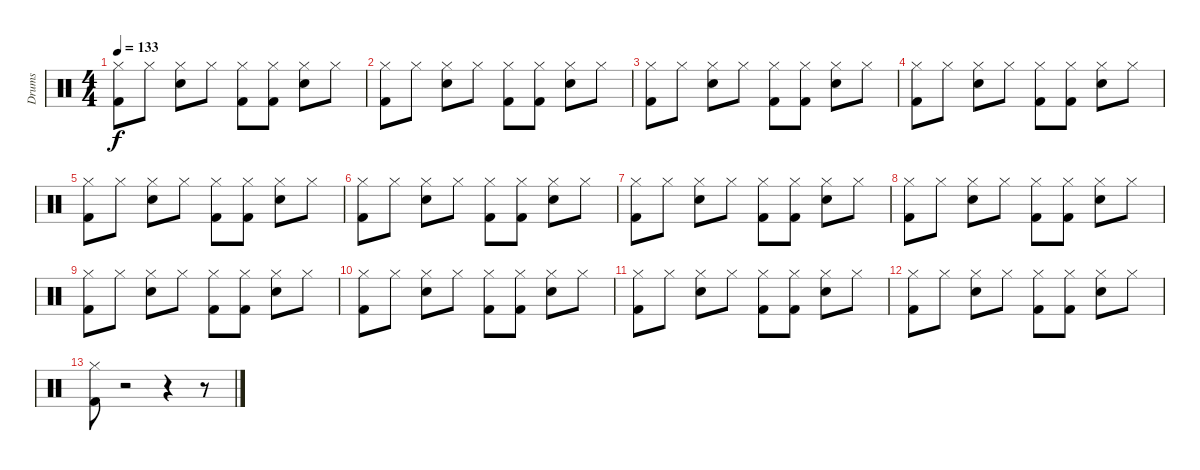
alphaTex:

\track ("Drums" "Drums") {instrument percussion}
\staff {score}
\articulation defaults
\ts (4 4)
\tempo 133
\clef neutral
\ks c
("Kick (hit) 2" "Hi-Hat (closed)").8{dy f} "Hi-Hat (closed)".8 ("Snare (hit) 2" "Hi-Hat (closed)").8 "Hi-Hat (closed)".8 ("Kick (hit) 2" "Hi-Hat (closed)").8 ("Kick (hit) 2" "Hi-Hat (closed)").8 ("Snare (hit) 2" "Hi-Hat (closed)").8 "Hi-Hat (closed)".8 |
("Kick (hit) 2" "Hi-Hat (closed)").8 "Hi-Hat (closed)".8 ("Snare (hit) 2" "Hi-Hat (closed)").8 "Hi-Hat (closed)".8 ("Kick (hit) 2" "Hi-Hat (closed)").8 ("Kick (hit) 2" "Hi-Hat (closed)").8 ("Snare (hit) 2" "Hi-Hat (closed)").8 "Hi-Hat (closed)".8 |
("Kick (hit) 2" "Hi-Hat (closed)").8 "Hi-Hat (closed)".8 ("Snare (hit) 2" "Hi-Hat (closed)").8 "Hi-Hat (closed)".8 ("Kick (hit) 2" "Hi-Hat (closed)").8 ("Kick (hit) 2" "Hi-Hat (closed)").8 ("Snare (hit) 2" "Hi-Hat (closed)").8 "Hi-Hat (closed)".8 |
("Kick (hit) 2" "Hi-Hat (closed)").8 "Hi-Hat (closed)".8 ("Snare (hit) 2" "Hi-Hat (closed)").8 "Hi-Hat (closed)".8 ("Kick (hit) 2" "Hi-Hat (closed)").8 ("Kick (hit) 2" "Hi-Hat (closed)").8 ("Snare (hit) 2" "Hi-Hat (closed)").8 "Hi-Hat (closed)".8 |
("Kick (hit) 2" "Hi-Hat (closed)").8 "Hi-Hat (closed)".8 ("Snare (hit) 2" "Hi-Hat (closed)").8 "Hi-Hat (closed)".8 ("Kick (hit) 2" "Hi-Hat (closed)").8 ("Kick (hit) 2" "Hi-Hat (closed)").8 ("Snare (hit) 2" "Hi-Hat (closed)").8 "Hi-Hat (closed)".8 |
("Kick (hit) 2" "Hi-Hat (closed)").8 "Hi-Hat (closed)".8 ("Snare (hit) 2" "Hi-Hat (closed)").8 "Hi-Hat (closed)".8 ("Kick (hit) 2" "Hi-Hat (closed)").8 ("Kick (hit) 2" "Hi-Hat (closed)").8 ("Snare (hit) 2" "Hi-Hat (closed)").8 "Hi-Hat (closed)".8 |
("Kick (hit) 2" "Hi-Hat (closed)").8 "Hi-Hat (closed)".8 ("Snare (hit) 2" "Hi-Hat (closed)").8 "Hi-Hat (closed)".8 ("Kick (hit) 2" "Hi-Hat (closed)").8 ("Kick (hit) 2" "Hi-Hat (closed)").8 ("Snare (hit) 2" "Hi-Hat (closed)").8 "Hi-Hat (closed)".8 |
("Kick (hit) 2" "Hi-Hat (closed)").8 "Hi-Hat (closed)".8 ("Snare (hit) 2" "Hi-Hat (closed)").8 "Hi-Hat (closed)".8 ("Kick (hit) 2" "Hi-Hat (closed)").8 ("Kick (hit) 2" "Hi-Hat (closed)").8 ("Snare (hit) 2" "Hi-Hat (closed)").8 "Hi-Hat (closed)".8 |
("Kick (hit) 2" "Hi-Hat (closed)").8 "Hi-Hat (closed)".8 ("Snare (hit) 2" "Hi-Hat (closed)").8 "Hi-Hat (closed)".8 ("Kick (hit) 2" "Hi-Hat (closed)").8 ("Kick (hit) 2" "Hi-Hat (closed)").8 ("Snare (hit) 2" "Hi-Hat (closed)").8 "Hi-Hat (closed)".8 |
("Kick (hit) 2" "Hi-Hat (closed)").8 "Hi-Hat (closed)".8 ("Snare (hit) 2" "Hi-Hat (closed)").8 "Hi-Hat (closed)".8 ("Kick (hit) 2" "Hi-Hat (closed)").8 ("Kick (hit) 2" "Hi-Hat (closed)").8 ("Snare (hit) 2" "Hi-Hat (closed)").8 "Hi-Hat (closed)".8 |
("Kick (hit) 2" "Hi-Hat (closed)").8 "Hi-Hat (closed)".8 ("Snare (hit) 2" "Hi-Hat (closed)").8 "Hi-Hat (closed)".8 ("Kick (hit) 2" "Hi-Hat (closed)").8 ("Kick (hit) 2" "Hi-Hat (closed)").8 ("Snare (hit) 2" "Hi-Hat (closed)").8 "Hi-Hat (closed)".8 |
("Kick (hit) 2" "Hi-Hat (closed)").8 "Hi-Hat (closed)".8 ("Snare (hit) 2" "Hi-Hat (closed)").8 "Hi-Hat (closed)".8 ("Kick (hit) 2" "Hi-Hat (closed)").8 ("Kick (hit) 2" "Hi-Hat (closed)").8 ("Snare (hit) 2" "Hi-Hat (closed)").8 "Hi-Hat (closed)".8 |
("Kick (hit) 2" "Hi-Hat (closed)").8 r.2 r.4 r.8
